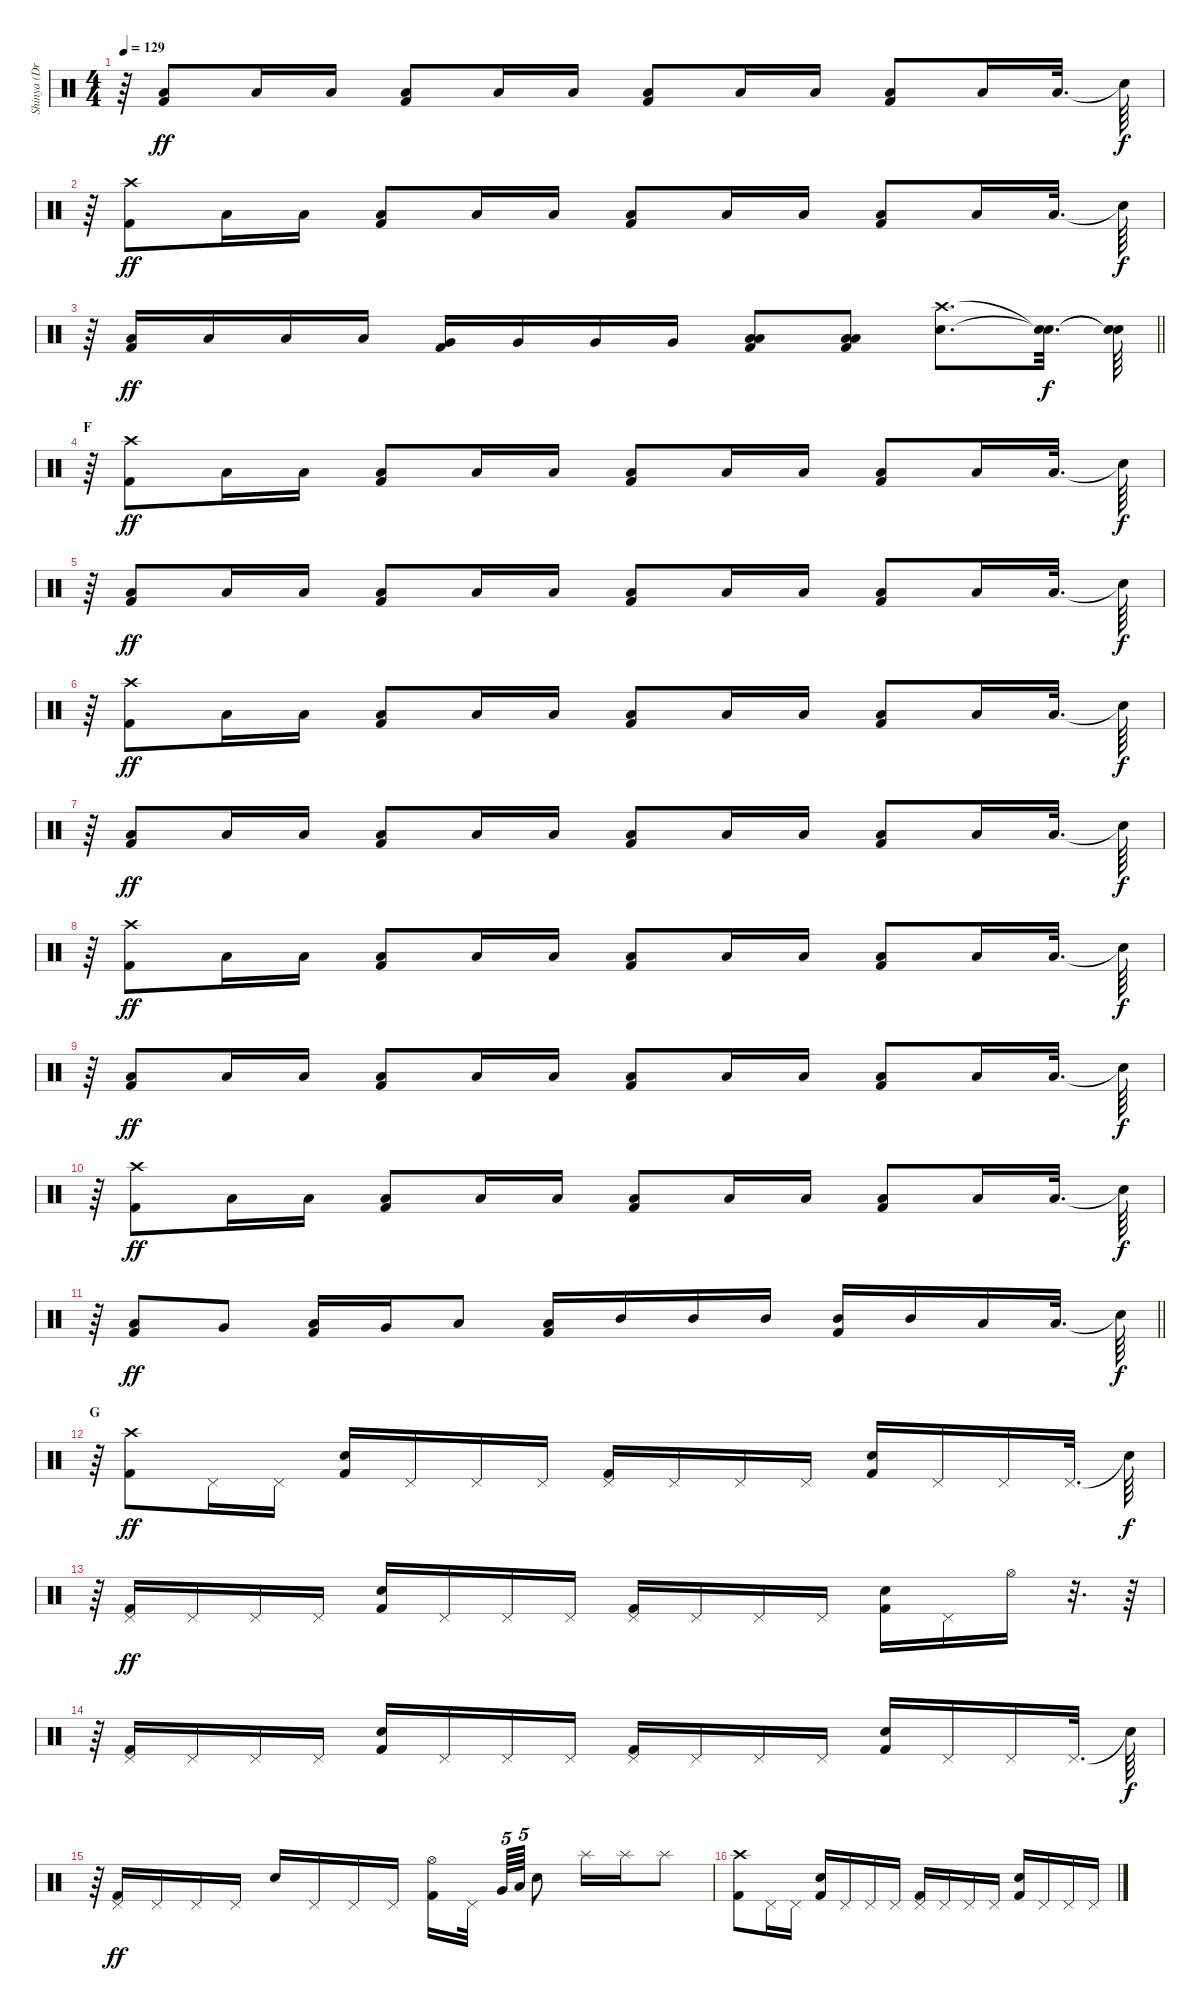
\track ("Shinya (Drums)" "Shinya (Dr") {instrument percussion}
\staff {score}
\articulation defaults
\ts (4 4)
\tempo 129
\clef neutral
\ks c
r.64{dy f} ("Kick (hit) 2" "Low Floor Tom (hit)").8{dy ff} "Low Floor Tom (hit)".16 "Low Floor Tom (hit)".16 ("Kick (hit) 2" "Low Floor Tom (hit)").8 "Low Floor Tom (hit)".16 "Low Floor Tom (hit)".16 ("Kick (hit) 2" "Low Floor Tom (hit)").8 "Low Floor Tom (hit)".16 "Low Floor Tom (hit)".16 ("Kick (hit) 2" "Low Floor Tom (hit)").8 "Low Floor Tom (hit)".16 "Low Floor Tom (hit)".32{d} "Snare (hit)"{t}.64{dy f} |
r.64 ("Kick (hit) 2" "Crash high (hit)").8{dy ff} "Low Floor Tom (hit)".16 "Low Floor Tom (hit)".16 ("Kick (hit) 2" "Low Floor Tom (hit)").8 "Low Floor Tom (hit)".16 "Low Floor Tom (hit)".16 ("Kick (hit) 2" "Low Floor Tom (hit)").8 "Low Floor Tom (hit)".16 "Low Floor Tom (hit)".16 ("Kick (hit) 2" "Low Floor Tom (hit)").8 "Low Floor Tom (hit)".16 "Low Floor Tom (hit)".32{d} "Snare (hit)"{t}.64{dy f} |
\barLineRight lightlight
r.64 ("Low Floor Tom (hit)" "Kick (hit) 2").16{dy ff} "Low Floor Tom (hit)".16 "Low Floor Tom (hit)".16 "Low Floor Tom (hit)".16 ("Very Low Tom (hit)" "Kick (hit) 2").16 "Very Low Tom (hit)".16 "Very Low Tom (hit)".16 "Very Low Tom (hit)".16 ("Low Floor Tom (hit)" "Low Tom (hit)" "Kick (hit) 2").8 ("Low Floor Tom (hit)" "Low Tom (hit)" "Kick (hit) 2").8 ("Electric Snare (hit)" "Crash high (hit)").8{d} ("Snare (hit)"{t} "Snare (hit)"{t}).32{d dy f} ("Snare (hit)"{t} "Snare (hit)"{t}).64 |
\section ("" "F")
r.64 ("Kick (hit) 2" "Crash high (hit)").8{dy ff} "Low Floor Tom (hit)".16 "Low Floor Tom (hit)".16 ("Kick (hit) 2" "Low Floor Tom (hit)").8 "Low Floor Tom (hit)".16 "Low Floor Tom (hit)".16 ("Kick (hit) 2" "Low Floor Tom (hit)").8 "Low Floor Tom (hit)".16 "Low Floor Tom (hit)".16 ("Kick (hit) 2" "Low Floor Tom (hit)").8 "Low Floor Tom (hit)".16 "Low Floor Tom (hit)".32{d} "Snare (hit)"{t}.64{dy f} |
r.64 ("Kick (hit) 2" "Low Floor Tom (hit)").8{dy ff} "Low Floor Tom (hit)".16 "Low Floor Tom (hit)".16 ("Kick (hit) 2" "Low Floor Tom (hit)").8 "Low Floor Tom (hit)".16 "Low Floor Tom (hit)".16 ("Kick (hit) 2" "Low Floor Tom (hit)").8 "Low Floor Tom (hit)".16 "Low Floor Tom (hit)".16 ("Kick (hit) 2" "Low Floor Tom (hit)").8 "Low Floor Tom (hit)".16 "Low Floor Tom (hit)".32{d} "Snare (hit)"{t}.64{dy f} |
r.64 ("Kick (hit) 2" "Crash high (hit)").8{dy ff} "Low Floor Tom (hit)".16 "Low Floor Tom (hit)".16 ("Kick (hit) 2" "Low Floor Tom (hit)").8 "Low Floor Tom (hit)".16 "Low Floor Tom (hit)".16 ("Kick (hit) 2" "Low Floor Tom (hit)").8 "Low Floor Tom (hit)".16 "Low Floor Tom (hit)".16 ("Kick (hit) 2" "Low Floor Tom (hit)").8 "Low Floor Tom (hit)".16 "Low Floor Tom (hit)".32{d} "Snare (hit)"{t}.64{dy f} |
r.64 ("Kick (hit) 2" "Low Floor Tom (hit)").8{dy ff} "Low Floor Tom (hit)".16 "Low Floor Tom (hit)".16 ("Kick (hit) 2" "Low Floor Tom (hit)").8 "Low Floor Tom (hit)".16 "Low Floor Tom (hit)".16 ("Kick (hit) 2" "Low Floor Tom (hit)").8 "Low Floor Tom (hit)".16 "Low Floor Tom (hit)".16 ("Kick (hit) 2" "Low Floor Tom (hit)").8 "Low Floor Tom (hit)".16 "Low Floor Tom (hit)".32{d} "Snare (hit)"{t}.64{dy f} |
r.64 ("Kick (hit) 2" "Crash high (hit)").8{dy ff} "Low Floor Tom (hit)".16 "Low Floor Tom (hit)".16 ("Kick (hit) 2" "Low Floor Tom (hit)").8 "Low Floor Tom (hit)".16 "Low Floor Tom (hit)".16 ("Kick (hit) 2" "Low Floor Tom (hit)").8 "Low Floor Tom (hit)".16 "Low Floor Tom (hit)".16 ("Kick (hit) 2" "Low Floor Tom (hit)").8 "Low Floor Tom (hit)".16 "Low Floor Tom (hit)".32{d} "Snare (hit)"{t}.64{dy f} |
r.64 ("Kick (hit) 2" "Low Floor Tom (hit)").8{dy ff} "Low Floor Tom (hit)".16 "Low Floor Tom (hit)".16 ("Kick (hit) 2" "Low Floor Tom (hit)").8 "Low Floor Tom (hit)".16 "Low Floor Tom (hit)".16 ("Kick (hit) 2" "Low Floor Tom (hit)").8 "Low Floor Tom (hit)".16 "Low Floor Tom (hit)".16 ("Kick (hit) 2" "Low Floor Tom (hit)").8 "Low Floor Tom (hit)".16 "Low Floor Tom (hit)".32{d} "Snare (hit)"{t}.64{dy f} |
r.64 ("Kick (hit) 2" "Crash high (hit)").8{dy ff} "Low Floor Tom (hit)".16 "Low Floor Tom (hit)".16 ("Kick (hit) 2" "Low Floor Tom (hit)").8 "Low Floor Tom (hit)".16 "Low Floor Tom (hit)".16 ("Kick (hit) 2" "Low Floor Tom (hit)").8 "Low Floor Tom (hit)".16 "Low Floor Tom (hit)".16 ("Kick (hit) 2" "Low Floor Tom (hit)").8 "Low Floor Tom (hit)".16 "Low Floor Tom (hit)".32{d} "Snare (hit)"{t}.64{dy f} |
\barLineRight lightlight
r.64 ("Kick (hit) 2" "Low Floor Tom (hit)").8{dy ff} "Very Low Tom (hit)".8 ("Kick (hit) 2" "Low Floor Tom (hit)").16 "Very Low Tom (hit)".16 "Low Floor Tom (hit)".8 ("Kick (hit) 2" "Low Floor Tom (hit)").16 "Mid Tom (hit)".16 "Mid Tom (hit)".16 "Mid Tom (hit)".16 ("Kick (hit) 2" "Mid Tom (hit)").16 "Mid Tom (hit)".16 "Low Tom (hit)".16 "Low Tom (hit)".32{d} "Snare (hit)"{t}.64{dy f} |
\section ("" "G")
r.64 ("Kick (hit) 2" "Crash high (hit)").8{dy ff} "Pedal Hi-Hat (hit)".16 "Pedal Hi-Hat (hit)".16 ("Kick (hit) 2" "Electric Snare (hit)").16 "Pedal Hi-Hat (hit)".16 "Pedal Hi-Hat (hit)".16 "Pedal Hi-Hat (hit)".16 ("Kick (hit) 2" "Pedal Hi-Hat (hit)").16 "Pedal Hi-Hat (hit)".16 "Pedal Hi-Hat (hit)".16 "Pedal Hi-Hat (hit)".16 ("Kick (hit) 2" "Electric Snare (hit)").16 "Pedal Hi-Hat (hit)".16 "Pedal Hi-Hat (hit)".16 "Pedal Hi-Hat (hit)".32{d} "Snare (hit)"{t}.64{dy f} |
r.64 ("Kick (hit) 2" "Pedal Hi-Hat (hit)").16{dy ff} "Pedal Hi-Hat (hit)".16 "Pedal Hi-Hat (hit)".16 "Pedal Hi-Hat (hit)".16 ("Kick (hit) 2" "Electric Snare (hit)").16 "Pedal Hi-Hat (hit)".16 "Pedal Hi-Hat (hit)".16 "Pedal Hi-Hat (hit)".16 ("Kick (hit) 2" "Pedal Hi-Hat (hit)").16 "Pedal Hi-Hat (hit)".16 "Pedal Hi-Hat (hit)".16 "Pedal Hi-Hat (hit)".16 ("Kick (hit) 2" "Electric Snare (hit)").16 "Pedal Hi-Hat (hit)".16 "Hi-Hat (open)".16 r.32{d} r.64 |
r.64 ("Kick (hit) 2" "Pedal Hi-Hat (hit)").16 "Pedal Hi-Hat (hit)".16 "Pedal Hi-Hat (hit)".16 "Pedal Hi-Hat (hit)".16 ("Kick (hit) 2" "Electric Snare (hit)").16 "Pedal Hi-Hat (hit)".16 "Pedal Hi-Hat (hit)".16 "Pedal Hi-Hat (hit)".16 ("Kick (hit) 2" "Pedal Hi-Hat (hit)").16 "Pedal Hi-Hat (hit)".16 "Pedal Hi-Hat (hit)".16 "Pedal Hi-Hat (hit)".16 ("Kick (hit) 2" "Electric Snare (hit)").16 "Pedal Hi-Hat (hit)".16 "Pedal Hi-Hat (hit)".16 "Pedal Hi-Hat (hit)".32{d} "Snare (hit)"{t}.64{dy f} |
r.64 ("Kick (hit) 2" "Pedal Hi-Hat (hit)").16{dy ff} "Pedal Hi-Hat (hit)".16 "Pedal Hi-Hat (hit)".16 "Pedal Hi-Hat (hit)".16 "Electric Snare (hit)".16 "Pedal Hi-Hat (hit)".16 "Pedal Hi-Hat (hit)".16 "Pedal Hi-Hat (hit)".16 ("Hi-Hat (open)" "Kick (hit) 2").16 "Pedal Hi-Hat (hit)".32{beam splitsecondary} "Very Low Tom (hit)".64{tu (5 4)} "Low Floor Tom (hit)".64{tu (5 4)} "Electric Snare (hit)".8 "Splash (hit)".16 "Splash (hit)".16 "Splash (hit)".8 |
("Kick (hit) 2" "Crash high (hit)").8 "Pedal Hi-Hat (hit)".16 "Pedal Hi-Hat (hit)".16 ("Kick (hit) 2" "Electric Snare (hit)").16 "Pedal Hi-Hat (hit)".16 "Pedal Hi-Hat (hit)".16 "Pedal Hi-Hat (hit)".16 ("Kick (hit) 2" "Pedal Hi-Hat (hit)").16 "Pedal Hi-Hat (hit)".16 "Pedal Hi-Hat (hit)".16 "Pedal Hi-Hat (hit)".16 ("Kick (hit) 2" "Electric Snare (hit)").16 "Pedal Hi-Hat (hit)".16 "Pedal Hi-Hat (hit)".16 "Pedal Hi-Hat (hit)".16
